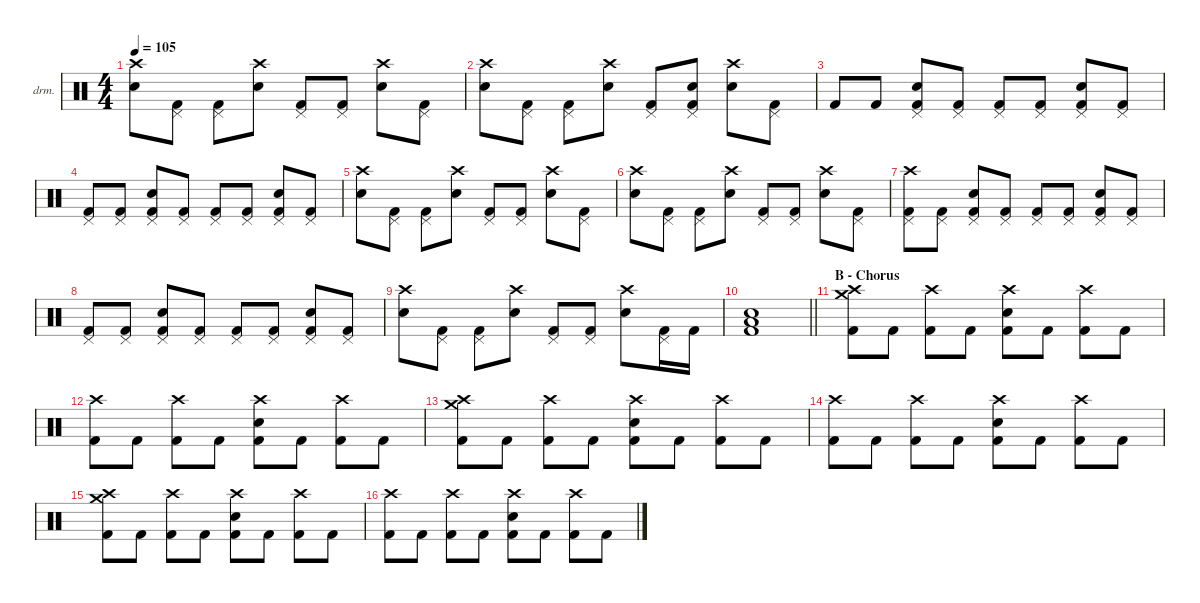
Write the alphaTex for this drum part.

\defaultSystemsLayout 4
\hideDynamics
\bracketExtendMode nobrackets
\firstSystemTrackNameOrientation horizontal
\otherSystemsTrackNameOrientation horizontal
\track ("Percussions" "drm.") {instrument percussion}
\staff {score}
\articulation defaults
\ts (4 4)
\tempo 105
\clef neutral
\ks c
("Crash high (hit)" "Snare (hit) 2").8{dy f} ("Pedal Hi-Hat (hit)" "Kick (hit) 2").8 ("Pedal Hi-Hat (hit)" "Kick (hit) 2").8 ("Crash high (hit)" "Snare (hit) 2").8 ("Pedal Hi-Hat (hit)" "Kick (hit) 2").8 ("Pedal Hi-Hat (hit)" "Kick (hit) 2").8 ("Crash high (hit)" "Snare (hit) 2").8 ("Pedal Hi-Hat (hit)" "Kick (hit) 2").8 |
("Crash high (hit)" "Snare (hit) 2").8 ("Pedal Hi-Hat (hit)" "Kick (hit) 2").8 ("Pedal Hi-Hat (hit)" "Kick (hit) 2").8 ("Crash high (hit)" "Snare (hit) 2").8 ("Pedal Hi-Hat (hit)" "Kick (hit) 2").8 ("Pedal Hi-Hat (hit)" "Snare (hit) 2" "Kick (hit) 2").8 ("Crash high (hit)" "Snare (hit) 2").8 ("Pedal Hi-Hat (hit)" "Kick (hit) 2").8 |
"Kick (hit) 2".8 "Kick (hit) 2".8 ("Pedal Hi-Hat (hit)" "Snare (hit) 2" "Kick (hit) 2").8 ("Pedal Hi-Hat (hit)" "Kick (hit) 2").8 ("Pedal Hi-Hat (hit)" "Kick (hit) 2").8 ("Pedal Hi-Hat (hit)" "Kick (hit) 2").8 ("Pedal Hi-Hat (hit)" "Snare (hit) 2" "Kick (hit) 2").8 ("Pedal Hi-Hat (hit)" "Kick (hit) 2").8 |
("Pedal Hi-Hat (hit)" "Kick (hit) 2").8 ("Pedal Hi-Hat (hit)" "Kick (hit) 2").8 ("Pedal Hi-Hat (hit)" "Snare (hit) 2" "Kick (hit) 2").8 ("Pedal Hi-Hat (hit)" "Kick (hit) 2").8 ("Pedal Hi-Hat (hit)" "Kick (hit) 2").8 ("Pedal Hi-Hat (hit)" "Kick (hit) 2").8 ("Pedal Hi-Hat (hit)" "Snare (hit) 2" "Kick (hit) 2").8 ("Pedal Hi-Hat (hit)" "Kick (hit) 2").8 |
("Crash high (hit)" "Snare (hit) 2").8 ("Pedal Hi-Hat (hit)" "Kick (hit) 2").8 ("Pedal Hi-Hat (hit)" "Kick (hit) 2").8 ("Crash high (hit)" "Snare (hit) 2").8 ("Pedal Hi-Hat (hit)" "Kick (hit) 2").8 ("Pedal Hi-Hat (hit)" "Kick (hit) 2").8 ("Crash high (hit)" "Snare (hit) 2").8 ("Pedal Hi-Hat (hit)" "Kick (hit) 2").8 |
("Crash high (hit)" "Snare (hit) 2").8 ("Pedal Hi-Hat (hit)" "Kick (hit) 2").8 ("Pedal Hi-Hat (hit)" "Kick (hit) 2").8 ("Crash high (hit)" "Snare (hit) 2").8 ("Pedal Hi-Hat (hit)" "Kick (hit) 2").8 ("Pedal Hi-Hat (hit)" "Kick (hit) 2").8 ("Crash high (hit)" "Snare (hit) 2").8 ("Pedal Hi-Hat (hit)" "Kick (hit) 2").8 |
("Crash high (hit)" "Pedal Hi-Hat (hit)" "Kick (hit) 2").8 ("Pedal Hi-Hat (hit)" "Kick (hit) 2").8 ("Pedal Hi-Hat (hit)" "Snare (hit) 2" "Kick (hit) 2").8 ("Pedal Hi-Hat (hit)" "Kick (hit) 2").8 ("Pedal Hi-Hat (hit)" "Kick (hit) 2").8 ("Pedal Hi-Hat (hit)" "Kick (hit) 2").8 ("Pedal Hi-Hat (hit)" "Snare (hit) 2" "Kick (hit) 2").8 ("Pedal Hi-Hat (hit)" "Kick (hit) 2").8 |
("Pedal Hi-Hat (hit)" "Kick (hit) 2").8 ("Pedal Hi-Hat (hit)" "Kick (hit) 2").8 ("Pedal Hi-Hat (hit)" "Snare (hit) 2" "Kick (hit) 2").8 ("Pedal Hi-Hat (hit)" "Kick (hit) 2").8 ("Pedal Hi-Hat (hit)" "Kick (hit) 2").8 ("Pedal Hi-Hat (hit)" "Kick (hit) 2").8 ("Pedal Hi-Hat (hit)" "Snare (hit) 2" "Kick (hit) 2").8 ("Pedal Hi-Hat (hit)" "Kick (hit) 2").8 |
("Crash high (hit)" "Snare (hit) 2").8 ("Pedal Hi-Hat (hit)" "Kick (hit) 2").8 ("Pedal Hi-Hat (hit)" "Kick (hit) 2").8 ("Crash high (hit)" "Snare (hit) 2").8 ("Pedal Hi-Hat (hit)" "Kick (hit) 2").8 ("Pedal Hi-Hat (hit)" "Kick (hit) 2").8 ("Crash high (hit)" "Snare (hit) 2").8 ("Pedal Hi-Hat (hit)" "Kick (hit) 2").16 "Kick (hit) 2".16 |
\barLineRight lightlight
("Low Tom (hit)" "Snare (hit) 2" "Kick (hit) 2").1{dy fff} |
\section ("" "B - Chorus")
("Crash medium (hit)" "Crash high (hit)" "Kick (hit) 2").8{dy f} "Kick (hit) 2".8 ("Crash high (hit)" "Kick (hit) 2").8 "Kick (hit) 2".8 ("Crash high (hit)" "Snare (hit) 2" "Kick (hit) 2").8 "Kick (hit) 2".8 ("Crash high (hit)" "Kick (hit) 2").8 "Kick (hit) 2".8 |
("Crash high (hit)" "Kick (hit) 2").8 "Kick (hit) 2".8 ("Crash high (hit)" "Kick (hit) 2").8 "Kick (hit) 2".8 ("Crash high (hit)" "Snare (hit) 2" "Kick (hit) 2").8 "Kick (hit) 2".8 ("Crash high (hit)" "Kick (hit) 2").8 "Kick (hit) 2".8 |
("Crash medium (hit)" "Crash high (hit)" "Kick (hit) 2").8 "Kick (hit) 2".8 ("Crash high (hit)" "Kick (hit) 2").8 "Kick (hit) 2".8 ("Crash high (hit)" "Snare (hit) 2" "Kick (hit) 2").8 "Kick (hit) 2".8 ("Crash high (hit)" "Kick (hit) 2").8 "Kick (hit) 2".8 |
("Crash high (hit)" "Kick (hit) 2").8 "Kick (hit) 2".8 ("Crash high (hit)" "Kick (hit) 2").8 "Kick (hit) 2".8 ("Crash high (hit)" "Snare (hit) 2" "Kick (hit) 2").8 "Kick (hit) 2".8 ("Crash high (hit)" "Kick (hit) 2").8 "Kick (hit) 2".8 |
("Crash medium (hit)" "Crash high (hit)" "Kick (hit) 2").8 "Kick (hit) 2".8 ("Crash high (hit)" "Kick (hit) 2").8 "Kick (hit) 2".8 ("Crash high (hit)" "Snare (hit) 2" "Kick (hit) 2").8 "Kick (hit) 2".8 ("Crash high (hit)" "Kick (hit) 2").8 "Kick (hit) 2".8 |
("Crash high (hit)" "Kick (hit) 2").8 "Kick (hit) 2".8 ("Crash high (hit)" "Kick (hit) 2").8 "Kick (hit) 2".8 ("Crash high (hit)" "Snare (hit) 2" "Kick (hit) 2").8 "Kick (hit) 2".8 ("Crash high (hit)" "Kick (hit) 2").8 "Kick (hit) 2".8
